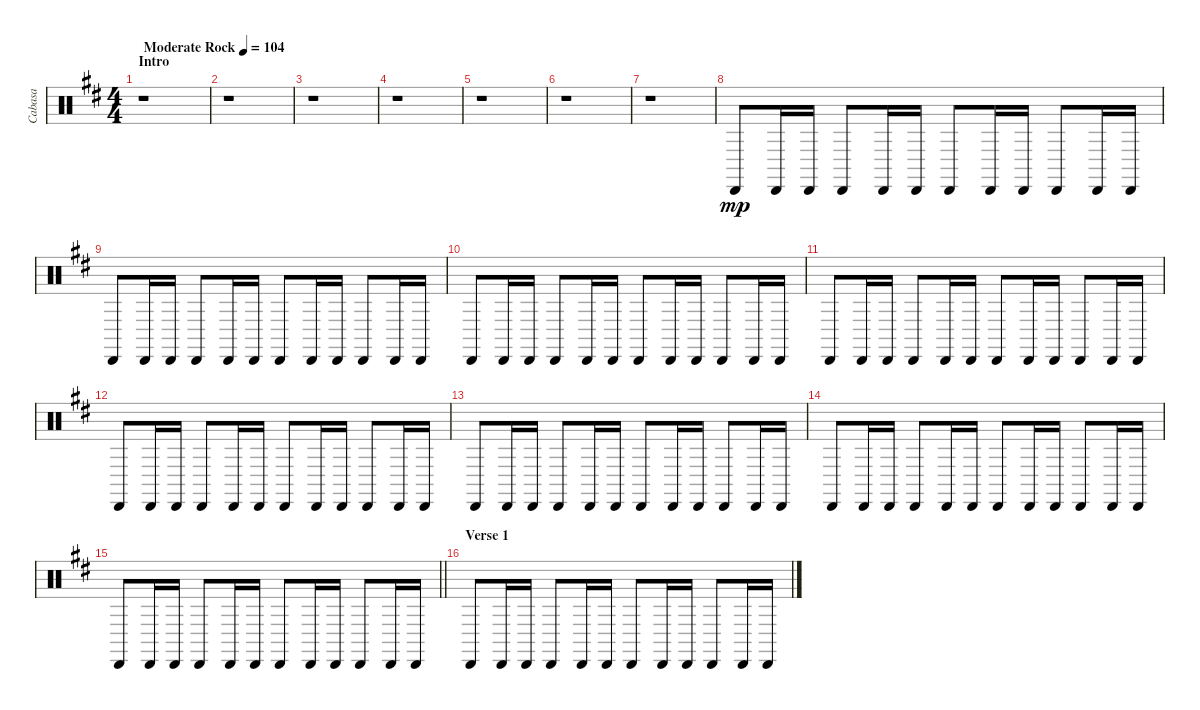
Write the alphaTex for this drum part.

\track ("Cabasa" "Cabasa") {instrument percussion}
\staff {score}
\articulation defaults
\ts (4 4)
\section ("" "Intro")
\tempo (104 "Moderate Rock")
\clef neutral
\ks bminor
r.1{dy mp} |
r.1 |
r.1 |
r.1 |
r.1 |
r.1 |
r.1 |
"Cabasa (hit)".8 "Cabasa (hit)".16 "Cabasa (hit)".16 "Cabasa (hit)".8 "Cabasa (hit)".16 "Cabasa (hit)".16 "Cabasa (hit)".8 "Cabasa (hit)".16 "Cabasa (hit)".16 "Cabasa (hit)".8 "Cabasa (hit)".16 "Cabasa (hit)".16 |
"Cabasa (hit)".8 "Cabasa (hit)".16 "Cabasa (hit)".16 "Cabasa (hit)".8 "Cabasa (hit)".16 "Cabasa (hit)".16 "Cabasa (hit)".8 "Cabasa (hit)".16 "Cabasa (hit)".16 "Cabasa (hit)".8 "Cabasa (hit)".16 "Cabasa (hit)".16 |
"Cabasa (hit)".8 "Cabasa (hit)".16 "Cabasa (hit)".16 "Cabasa (hit)".8 "Cabasa (hit)".16 "Cabasa (hit)".16 "Cabasa (hit)".8 "Cabasa (hit)".16 "Cabasa (hit)".16 "Cabasa (hit)".8 "Cabasa (hit)".16 "Cabasa (hit)".16 |
"Cabasa (hit)".8 "Cabasa (hit)".16 "Cabasa (hit)".16 "Cabasa (hit)".8 "Cabasa (hit)".16 "Cabasa (hit)".16 "Cabasa (hit)".8 "Cabasa (hit)".16 "Cabasa (hit)".16 "Cabasa (hit)".8 "Cabasa (hit)".16 "Cabasa (hit)".16 |
"Cabasa (hit)".8 "Cabasa (hit)".16 "Cabasa (hit)".16 "Cabasa (hit)".8 "Cabasa (hit)".16 "Cabasa (hit)".16 "Cabasa (hit)".8 "Cabasa (hit)".16 "Cabasa (hit)".16 "Cabasa (hit)".8 "Cabasa (hit)".16 "Cabasa (hit)".16 |
"Cabasa (hit)".8 "Cabasa (hit)".16 "Cabasa (hit)".16 "Cabasa (hit)".8 "Cabasa (hit)".16 "Cabasa (hit)".16 "Cabasa (hit)".8 "Cabasa (hit)".16 "Cabasa (hit)".16 "Cabasa (hit)".8 "Cabasa (hit)".16 "Cabasa (hit)".16 |
"Cabasa (hit)".8 "Cabasa (hit)".16 "Cabasa (hit)".16 "Cabasa (hit)".8 "Cabasa (hit)".16 "Cabasa (hit)".16 "Cabasa (hit)".8 "Cabasa (hit)".16 "Cabasa (hit)".16 "Cabasa (hit)".8 "Cabasa (hit)".16 "Cabasa (hit)".16 |
\barLineRight lightlight "Cabasa (hit)".8 "Cabasa (hit)".16 "Cabasa (hit)".16 "Cabasa (hit)".8 "Cabasa (hit)".16 "Cabasa (hit)".16 "Cabasa (hit)".8 "Cabasa (hit)".16 "Cabasa (hit)".16 "Cabasa (hit)".8 "Cabasa (hit)".16 "Cabasa (hit)".16
|
\section ("" "Verse 1")
"Cabasa (hit)".8 "Cabasa (hit)".16 "Cabasa (hit)".16 "Cabasa (hit)".8 "Cabasa (hit)".16 "Cabasa (hit)".16 "Cabasa (hit)".8 "Cabasa (hit)".16 "Cabasa (hit)".16 "Cabasa (hit)".8 "Cabasa (hit)".16 "Cabasa (hit)".16
